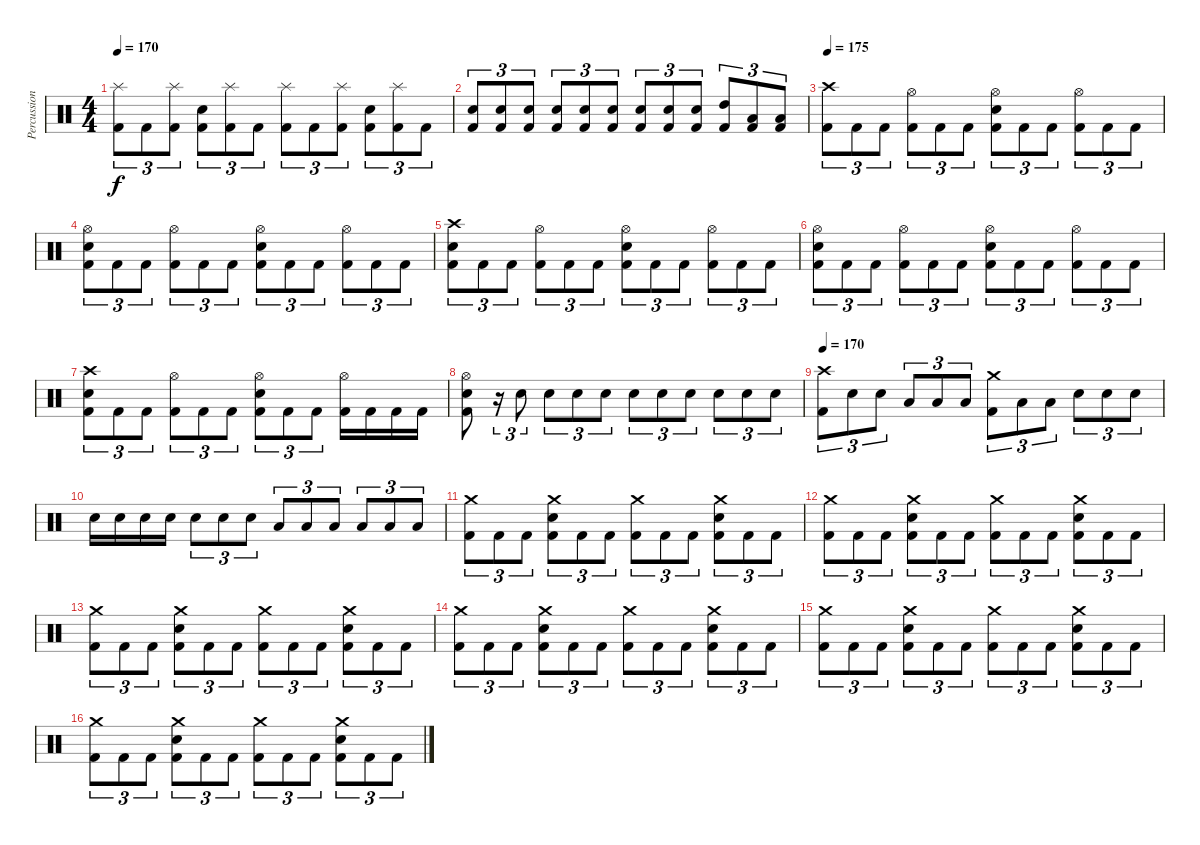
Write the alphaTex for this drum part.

\track ("Percussion" "Percussion") {instrument percussion}
\staff {score}
\articulation defaults
\ts (4 4)
\tempo 170
\clef neutral
\ks c
("Splash (hit)" "Kick (hit) 2").8{tu (3 2) dy f} "Kick (hit) 2".8{tu (3 2)} ("Splash (hit)" "Kick (hit) 2").8{tu (3 2)} ("Electric Snare (hit)" "Kick (hit) 2").8{tu (3 2)} ("Splash (hit)" "Kick (hit) 2").8{tu (3 2)} "Kick (hit) 2".8{tu (3 2)} ("Splash (hit)" "Kick (hit) 2").8{tu (3 2)} "Kick (hit) 2".8{tu (3 2)} ("Splash (hit)" "Kick (hit) 2").8{tu (3 2)} ("Electric Snare (hit)" "Kick (hit) 2").8{tu (3 2)} ("Splash (hit)" "Kick (hit) 2").8{tu (3 2)} "Kick (hit) 2".8{tu (3 2)} |
("Electric Snare (hit)" "Kick (hit) 2").8{tu (3 2)} ("Electric Snare (hit)" "Kick (hit) 2").8{tu (3 2)} ("Electric Snare (hit)" "Kick (hit) 2").8{tu (3 2)} ("Electric Snare (hit)" "Kick (hit) 2").8{tu (3 2)} ("Electric Snare (hit)" "Kick (hit) 2").8{tu (3 2)} ("Electric Snare (hit)" "Kick (hit) 2").8{tu (3 2)} ("Electric Snare (hit)" "Kick (hit) 2").8{tu (3 2)} ("Electric Snare (hit)" "Kick (hit) 2").8{tu (3 2)} ("Electric Snare (hit)" "Kick (hit) 2").8{tu (3 2)} ("High Tom (hit)" "Kick (hit) 2").8{tu (3 2)} ("Low Tom (hit)" "Kick (hit) 2").8{tu (3 2)} ("Low Tom (hit)" "Kick (hit) 2").8{tu (3 2)} |
\tempo 175
("Crash high (hit)" "Kick (hit) 2").8{tu (3 2)} "Kick (hit) 2".8{tu (3 2)} "Kick (hit) 2".8{tu (3 2)} ("Hi-Hat (open)" "Kick (hit) 2").8{tu (3 2)} "Kick (hit) 2".8{tu (3 2)} "Kick (hit) 2".8{tu (3 2)} ("Hi-Hat (open)" "Electric Snare (hit)" "Kick (hit) 2").8{tu (3 2)} "Kick (hit) 2".8{tu (3 2)} "Kick (hit) 2".8{tu (3 2)} ("Hi-Hat (open)" "Kick (hit) 2").8{tu (3 2)} "Kick (hit) 2".8{tu (3 2)} "Kick (hit) 2".8{tu (3 2)} |
("Hi-Hat (open)" "Electric Snare (hit)" "Kick (hit) 2").8{tu (3 2)} "Kick (hit) 2".8{tu (3 2)} "Kick (hit) 2".8{tu (3 2)} ("Hi-Hat (open)" "Kick (hit) 2").8{tu (3 2)} "Kick (hit) 2".8{tu (3 2)} "Kick (hit) 2".8{tu (3 2)} ("Hi-Hat (open)" "Electric Snare (hit)" "Kick (hit) 2").8{tu (3 2)} "Kick (hit) 2".8{tu (3 2)} "Kick (hit) 2".8{tu (3 2)} ("Hi-Hat (open)" "Kick (hit) 2").8{tu (3 2)} "Kick (hit) 2".8{tu (3 2)} "Kick (hit) 2".8{tu (3 2)} |
("Crash high (hit)" "Electric Snare (hit)" "Kick (hit) 2").8{tu (3 2)} "Kick (hit) 2".8{tu (3 2)} "Kick (hit) 2".8{tu (3 2)} ("Hi-Hat (open)" "Kick (hit) 2").8{tu (3 2)} "Kick (hit) 2".8{tu (3 2)} "Kick (hit) 2".8{tu (3 2)} ("Hi-Hat (open)" "Electric Snare (hit)" "Kick (hit) 2").8{tu (3 2)} "Kick (hit) 2".8{tu (3 2)} "Kick (hit) 2".8{tu (3 2)} ("Hi-Hat (open)" "Kick (hit) 2").8{tu (3 2)} "Kick (hit) 2".8{tu (3 2)} "Kick (hit) 2".8{tu (3 2)} |
("Hi-Hat (open)" "Electric Snare (hit)" "Kick (hit) 2").8{tu (3 2)} "Kick (hit) 2".8{tu (3 2)} "Kick (hit) 2".8{tu (3 2)} ("Hi-Hat (open)" "Kick (hit) 2").8{tu (3 2)} "Kick (hit) 2".8{tu (3 2)} "Kick (hit) 2".8{tu (3 2)} ("Hi-Hat (open)" "Electric Snare (hit)" "Kick (hit) 2").8{tu (3 2)} "Kick (hit) 2".8{tu (3 2)} "Kick (hit) 2".8{tu (3 2)} ("Hi-Hat (open)" "Kick (hit) 2").8{tu (3 2)} "Kick (hit) 2".8{tu (3 2)} "Kick (hit) 2".8{tu (3 2)} |
("Crash high (hit)" "Electric Snare (hit)" "Kick (hit) 2").8{tu (3 2)} "Kick (hit) 2".8{tu (3 2)} "Kick (hit) 2".8{tu (3 2)} ("Hi-Hat (open)" "Kick (hit) 2").8{tu (3 2)} "Kick (hit) 2".8{tu (3 2)} "Kick (hit) 2".8{tu (3 2)} ("Hi-Hat (open)" "Electric Snare (hit)" "Kick (hit) 2").8{tu (3 2)} "Kick (hit) 2".8{tu (3 2)} "Kick (hit) 2".8{tu (3 2)} ("Hi-Hat (open)" "Kick (hit) 2").16 "Kick (hit) 2".16 "Kick (hit) 2".16 "Kick (hit) 2".16 |
("Hi-Hat (open)" "Electric Snare (hit)" "Kick (hit) 2").8 r.16{tu (3 2)} "Electric Snare (hit)".8{tu (3 2)} "Electric Snare (hit)".8{tu (3 2)} "Electric Snare (hit)".8{tu (3 2)} "Electric Snare (hit)".8{tu (3 2)} "Electric Snare (hit)".8{tu (3 2)} "Electric Snare (hit)".8{tu (3 2)} "Electric Snare (hit)".8{tu (3 2)} "Electric Snare (hit)".8{tu (3 2)} "Electric Snare (hit)".8{tu (3 2)} "Electric Snare (hit)".8{tu (3 2)} |
\tempo 170
("Crash high (hit)" "Kick (hit) 2").8{tu (3 2)} "Electric Snare (hit)".8{tu (3 2)} "Electric Snare (hit)".8{tu (3 2)} "Low Tom (hit)".8{tu (3 2)} "Low Tom (hit)".8{tu (3 2)} "Low Tom (hit)".8{tu (3 2)} ("Crash medium (hit)" "Kick (hit) 2").8{tu (3 2)} "Low Tom (hit)".8{tu (3 2)} "Low Tom (hit)".8{tu (3 2)} "Electric Snare (hit)".8{tu (3 2)} "Electric Snare (hit)".8{tu (3 2)} "Electric Snare (hit)".8{tu (3 2)} |
"Electric Snare (hit)".16 "Electric Snare (hit)".16 "Electric Snare (hit)".16 "Electric Snare (hit)".16 "Electric Snare (hit)".8{tu (3 2)} "Electric Snare (hit)".8{tu (3 2)} "Electric Snare (hit)".8{tu (3 2)} "Low Tom (hit)".8{tu (3 2)} "Low Tom (hit)".8{tu (3 2)} "Low Tom (hit)".8{tu (3 2)} "Low Tom (hit)".8{tu (3 2)} "Low Floor Tom (hit)".8{tu (3 2)} "Low Floor Tom (hit)".8{tu (3 2)} |
("Crash medium (hit)" "Kick (hit) 2").8{tu (3 2)} "Kick (hit) 2".8{tu (3 2)} "Kick (hit) 2".8{tu (3 2)} ("Crash medium (hit)" "Electric Snare (hit)" "Kick (hit) 2").8{tu (3 2)} "Kick (hit) 2".8{tu (3 2)} "Kick (hit) 2".8{tu (3 2)} ("Crash medium (hit)" "Kick (hit) 2").8{tu (3 2)} "Kick (hit) 2".8{tu (3 2)} "Kick (hit) 2".8{tu (3 2)} ("Crash medium (hit)" "Electric Snare (hit)" "Kick (hit) 2").8{tu (3 2)} "Kick (hit) 2".8{tu (3 2)} "Kick (hit) 2".8{tu (3 2)} |
("Crash medium (hit)" "Kick (hit) 2").8{tu (3 2)} "Kick (hit) 2".8{tu (3 2)} "Kick (hit) 2".8{tu (3 2)} ("Crash medium (hit)" "Electric Snare (hit)" "Kick (hit) 2").8{tu (3 2)} "Kick (hit) 2".8{tu (3 2)} "Kick (hit) 2".8{tu (3 2)} ("Crash medium (hit)" "Kick (hit) 2").8{tu (3 2)} "Kick (hit) 2".8{tu (3 2)} "Kick (hit) 2".8{tu (3 2)} ("Crash medium (hit)" "Electric Snare (hit)" "Kick (hit) 2").8{tu (3 2)} "Kick (hit) 2".8{tu (3 2)} "Kick (hit) 2".8{tu (3 2)} |
("Crash medium (hit)" "Kick (hit) 2").8{tu (3 2)} "Kick (hit) 2".8{tu (3 2)} "Kick (hit) 2".8{tu (3 2)} ("Crash medium (hit)" "Electric Snare (hit)" "Kick (hit) 2").8{tu (3 2)} "Kick (hit) 2".8{tu (3 2)} "Kick (hit) 2".8{tu (3 2)} ("Crash medium (hit)" "Kick (hit) 2").8{tu (3 2)} "Kick (hit) 2".8{tu (3 2)} "Kick (hit) 2".8{tu (3 2)} ("Crash medium (hit)" "Electric Snare (hit)" "Kick (hit) 2").8{tu (3 2)} "Kick (hit) 2".8{tu (3 2)} "Kick (hit) 2".8{tu (3 2)} |
("Crash medium (hit)" "Kick (hit) 2").8{tu (3 2)} "Kick (hit) 2".8{tu (3 2)} "Kick (hit) 2".8{tu (3 2)} ("Crash medium (hit)" "Electric Snare (hit)" "Kick (hit) 2").8{tu (3 2)} "Kick (hit) 2".8{tu (3 2)} "Kick (hit) 2".8{tu (3 2)} ("Crash medium (hit)" "Kick (hit) 2").8{tu (3 2)} "Kick (hit) 2".8{tu (3 2)} "Kick (hit) 2".8{tu (3 2)} ("Crash medium (hit)" "Electric Snare (hit)" "Kick (hit) 2").8{tu (3 2)} "Kick (hit) 2".8{tu (3 2)} "Kick (hit) 2".8{tu (3 2)} |
("Crash medium (hit)" "Kick (hit) 2").8{tu (3 2)} "Kick (hit) 2".8{tu (3 2)} "Kick (hit) 2".8{tu (3 2)} ("Crash medium (hit)" "Electric Snare (hit)" "Kick (hit) 2").8{tu (3 2)} "Kick (hit) 2".8{tu (3 2)} "Kick (hit) 2".8{tu (3 2)} ("Crash medium (hit)" "Kick (hit) 2").8{tu (3 2)} "Kick (hit) 2".8{tu (3 2)} "Kick (hit) 2".8{tu (3 2)} ("Crash medium (hit)" "Electric Snare (hit)" "Kick (hit) 2").8{tu (3 2)} "Kick (hit) 2".8{tu (3 2)} "Kick (hit) 2".8{tu (3 2)} |
("Crash medium (hit)" "Kick (hit) 2").8{tu (3 2)} "Kick (hit) 2".8{tu (3 2)} "Kick (hit) 2".8{tu (3 2)} ("Crash medium (hit)" "Electric Snare (hit)" "Kick (hit) 2").8{tu (3 2)} "Kick (hit) 2".8{tu (3 2)} "Kick (hit) 2".8{tu (3 2)} ("Crash medium (hit)" "Kick (hit) 2").8{tu (3 2)} "Kick (hit) 2".8{tu (3 2)} "Kick (hit) 2".8{tu (3 2)} ("Crash medium (hit)" "Electric Snare (hit)" "Kick (hit) 2").8{tu (3 2)} "Kick (hit) 2".8{tu (3 2)} "Kick (hit) 2".8{tu (3 2)}
